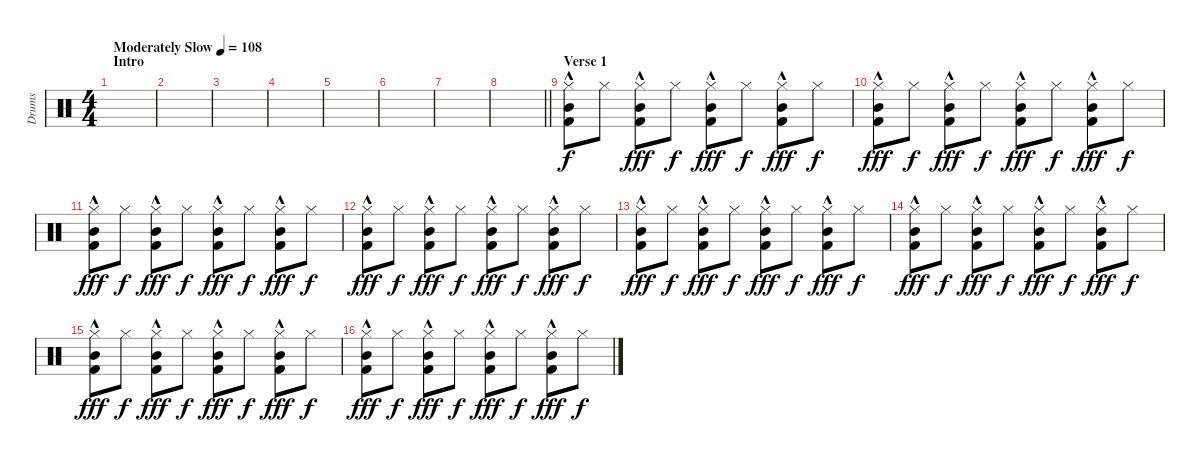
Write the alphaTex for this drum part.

\track ("Drums" "Drums") {instrument percussion}
\staff {score}
\articulation defaults
\ts (4 4)
\section ("" "Intro")
\tempo (108 "Moderately Slow")
\clef neutral
\ks c
|
|
|
|
|
|
|
\barLineRight lightlight
|
\section ("" "Verse 1")
("Hi-Hat (closed)" "Mid Tom (hit)" "Kick (hit) 2"{hac}).8 "Hi-Hat (closed)".8{dy f} ("Hi-Hat (closed)" "Mid Tom (hit)" "Kick (hit) 2"{hac}).8{dy fff} "Hi-Hat (closed)".8{dy f} ("Hi-Hat (closed)" "Mid Tom (hit)" "Kick (hit) 2"{hac}).8{dy fff} "Hi-Hat (closed)".8{dy f} ("Hi-Hat (closed)" "Mid Tom (hit)" "Kick (hit) 2"{hac}).8{dy fff} "Hi-Hat (closed)".8{dy f} |
("Hi-Hat (closed)" "Mid Tom (hit)" "Kick (hit) 2"{hac}).8{dy fff} "Hi-Hat (closed)".8{dy f} ("Hi-Hat (closed)" "Mid Tom (hit)" "Kick (hit) 2"{hac}).8{dy fff} "Hi-Hat (closed)".8{dy f} ("Hi-Hat (closed)" "Mid Tom (hit)" "Kick (hit) 2"{hac}).8{dy fff} "Hi-Hat (closed)".8{dy f} ("Hi-Hat (closed)" "Mid Tom (hit)" "Kick (hit) 2"{hac}).8{dy fff} "Hi-Hat (closed)".8{dy f} |
("Hi-Hat (closed)" "Mid Tom (hit)" "Kick (hit) 2"{hac}).8{dy fff} "Hi-Hat (closed)".8{dy f} ("Hi-Hat (closed)" "Mid Tom (hit)" "Kick (hit) 2"{hac}).8{dy fff} "Hi-Hat (closed)".8{dy f} ("Hi-Hat (closed)" "Mid Tom (hit)" "Kick (hit) 2"{hac}).8{dy fff} "Hi-Hat (closed)".8{dy f} ("Hi-Hat (closed)" "Mid Tom (hit)" "Kick (hit) 2"{hac}).8{dy fff} "Hi-Hat (closed)".8{dy f} |
("Hi-Hat (closed)" "Mid Tom (hit)" "Kick (hit) 2"{hac}).8{dy fff} "Hi-Hat (closed)".8{dy f} ("Hi-Hat (closed)" "Mid Tom (hit)" "Kick (hit) 2"{hac}).8{dy fff} "Hi-Hat (closed)".8{dy f} ("Hi-Hat (closed)" "Mid Tom (hit)" "Kick (hit) 2"{hac}).8{dy fff} "Hi-Hat (closed)".8{dy f} ("Hi-Hat (closed)" "Mid Tom (hit)" "Kick (hit) 2"{hac}).8{dy fff} "Hi-Hat (closed)".8{dy f} |
("Hi-Hat (closed)" "Mid Tom (hit)" "Kick (hit) 2"{hac}).8{dy fff} "Hi-Hat (closed)".8{dy f} ("Hi-Hat (closed)" "Mid Tom (hit)" "Kick (hit) 2"{hac}).8{dy fff} "Hi-Hat (closed)".8{dy f} ("Hi-Hat (closed)" "Mid Tom (hit)" "Kick (hit) 2"{hac}).8{dy fff} "Hi-Hat (closed)".8{dy f} ("Hi-Hat (closed)" "Mid Tom (hit)" "Kick (hit) 2"{hac}).8{dy fff} "Hi-Hat (closed)".8{dy f} |
("Hi-Hat (closed)" "Mid Tom (hit)" "Kick (hit) 2"{hac}).8{dy fff} "Hi-Hat (closed)".8{dy f} ("Hi-Hat (closed)" "Mid Tom (hit)" "Kick (hit) 2"{hac}).8{dy fff} "Hi-Hat (closed)".8{dy f} ("Hi-Hat (closed)" "Mid Tom (hit)" "Kick (hit) 2"{hac}).8{dy fff} "Hi-Hat (closed)".8{dy f} ("Hi-Hat (closed)" "Mid Tom (hit)" "Kick (hit) 2"{hac}).8{dy fff} "Hi-Hat (closed)".8{dy f} |
("Hi-Hat (closed)" "Mid Tom (hit)" "Kick (hit) 2"{hac}).8{dy fff} "Hi-Hat (closed)".8{dy f} ("Hi-Hat (closed)" "Mid Tom (hit)" "Kick (hit) 2"{hac}).8{dy fff} "Hi-Hat (closed)".8{dy f} ("Hi-Hat (closed)" "Mid Tom (hit)" "Kick (hit) 2"{hac}).8{dy fff} "Hi-Hat (closed)".8{dy f} ("Hi-Hat (closed)" "Mid Tom (hit)" "Kick (hit) 2"{hac}).8{dy fff} "Hi-Hat (closed)".8{dy f} |
("Hi-Hat (closed)" "Mid Tom (hit)" "Kick (hit) 2"{hac}).8{dy fff} "Hi-Hat (closed)".8{dy f} ("Hi-Hat (closed)" "Mid Tom (hit)" "Kick (hit) 2"{hac}).8{dy fff} "Hi-Hat (closed)".8{dy f} ("Hi-Hat (closed)" "Mid Tom (hit)" "Kick (hit) 2"{hac}).8{dy fff} "Hi-Hat (closed)".8{dy f} ("Hi-Hat (closed)" "Mid Tom (hit)" "Kick (hit) 2"{hac}).8{dy fff} "Hi-Hat (closed)".8{dy f}
